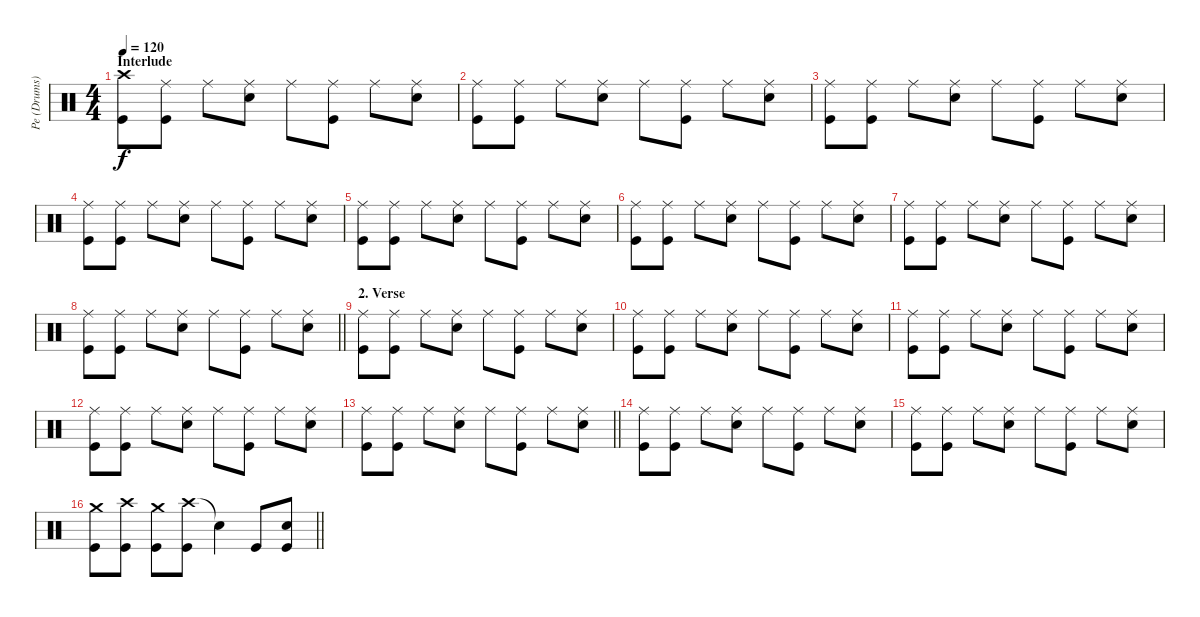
\track ("Pe (Drums)" "Pe (Drums)") {instrument percussion}
\staff {score}
\articulation defaults
\ts (4 4)
\section ("" "Interlude")
\tempo 120
\clef neutral
\ks c
("Crash high (hit)" "Kick (hit)").8{dy f} ("Ride (middle)" "Kick (hit)").8 "Ride (middle)".8 ("Ride (middle)" "Electric Snare (hit)").8 "Ride (middle)".8 ("Ride (middle)" "Kick (hit)").8 "Ride (middle)".8 ("Ride (middle)" "Electric Snare (hit)").8 |
("Ride (middle)" "Kick (hit)").8 ("Ride (middle)" "Kick (hit)").8 "Ride (middle)".8 ("Ride (middle)" "Electric Snare (hit)").8 "Ride (middle)".8 ("Ride (middle)" "Kick (hit)").8 "Ride (middle)".8 ("Ride (middle)" "Electric Snare (hit)").8 |
("Ride (middle)" "Kick (hit)").8 ("Ride (middle)" "Kick (hit)").8 "Ride (middle)".8 ("Ride (middle)" "Electric Snare (hit)").8 "Ride (middle)".8 ("Ride (middle)" "Kick (hit)").8 "Ride (middle)".8 ("Ride (middle)" "Electric Snare (hit)").8 |
("Ride (middle)" "Kick (hit)").8 ("Ride (middle)" "Kick (hit)").8 "Ride (middle)".8 ("Ride (middle)" "Electric Snare (hit)").8 "Ride (middle)".8 ("Ride (middle)" "Kick (hit)").8 "Ride (middle)".8 ("Ride (middle)" "Electric Snare (hit)").8 |
("Ride (middle)" "Kick (hit)").8 ("Ride (middle)" "Kick (hit)").8 "Ride (middle)".8 ("Ride (middle)" "Electric Snare (hit)").8 "Ride (middle)".8 ("Ride (middle)" "Kick (hit)").8 "Ride (middle)".8 ("Ride (middle)" "Electric Snare (hit)").8 |
("Ride (middle)" "Kick (hit)").8 ("Ride (middle)" "Kick (hit)").8 "Ride (middle)".8 ("Ride (middle)" "Electric Snare (hit)").8 "Ride (middle)".8 ("Ride (middle)" "Kick (hit)").8 "Ride (middle)".8 ("Ride (middle)" "Electric Snare (hit)").8 |
("Ride (middle)" "Kick (hit)").8 ("Ride (middle)" "Kick (hit)").8 "Ride (middle)".8 ("Ride (middle)" "Electric Snare (hit)").8 "Ride (middle)".8 ("Ride (middle)" "Kick (hit)").8 "Ride (middle)".8 ("Ride (middle)" "Electric Snare (hit)").8 |
\barLineRight lightlight
("Ride (middle)" "Kick (hit)").8 ("Ride (middle)" "Kick (hit)").8 "Ride (middle)".8 ("Ride (middle)" "Electric Snare (hit)").8 "Ride (middle)".8 ("Ride (middle)" "Kick (hit)").8 "Ride (middle)".8 ("Ride (middle)" "Electric Snare (hit)").8 |
\section ("" "2. Verse")
("Ride (middle)" "Kick (hit)").8 ("Ride (middle)" "Kick (hit)").8 "Ride (middle)".8 ("Ride (middle)" "Electric Snare (hit)").8 "Ride (middle)".8 ("Ride (middle)" "Kick (hit)").8 "Ride (middle)".8 ("Ride (middle)" "Electric Snare (hit)").8 |
("Ride (middle)" "Kick (hit)").8 ("Ride (middle)" "Kick (hit)").8 "Ride (middle)".8 ("Ride (middle)" "Electric Snare (hit)").8 "Ride (middle)".8 ("Ride (middle)" "Kick (hit)").8 "Ride (middle)".8 ("Ride (middle)" "Electric Snare (hit)").8 |
("Ride (middle)" "Kick (hit)").8 ("Ride (middle)" "Kick (hit)").8 "Ride (middle)".8 ("Ride (middle)" "Electric Snare (hit)").8 "Ride (middle)".8 ("Ride (middle)" "Kick (hit)").8 "Ride (middle)".8 ("Ride (middle)" "Electric Snare (hit)").8 |
("Ride (middle)" "Kick (hit)").8 ("Ride (middle)" "Kick (hit)").8 "Ride (middle)".8 ("Ride (middle)" "Electric Snare (hit)").8 "Ride (middle)".8 ("Ride (middle)" "Kick (hit)").8 "Ride (middle)".8 ("Ride (middle)" "Electric Snare (hit)").8 |
\barLineRight lightlight
("Ride (middle)" "Kick (hit)").8 ("Ride (middle)" "Kick (hit)").8 "Ride (middle)".8 ("Ride (middle)" "Electric Snare (hit)").8 "Ride (middle)".8 ("Ride (middle)" "Kick (hit)").8 "Ride (middle)".8 ("Ride (middle)" "Electric Snare (hit)").8 |
("Ride (middle)" "Kick (hit)").8 ("Ride (middle)" "Kick (hit)").8 "Ride (middle)".8 ("Ride (middle)" "Electric Snare (hit)").8 "Ride (middle)".8 ("Ride (middle)" "Kick (hit)").8 "Ride (middle)".8 ("Ride (middle)" "Electric Snare (hit)").8 |
("Ride (middle)" "Kick (hit)").8 ("Ride (middle)" "Kick (hit)").8 "Ride (middle)".8 ("Ride (middle)" "Electric Snare (hit)").8 "Ride (middle)".8 ("Ride (middle)" "Kick (hit)").8 "Ride (middle)".8 ("Ride (middle)" "Electric Snare (hit)").8 |
\barLineRight lightlight
("Crash medium (hit)" "Kick (hit)").8 ("Crash high (hit)" "Kick (hit)").8 ("Crash medium (hit)" "Kick (hit)").8 ("Crash high (hit)" "Kick (hit)").8 "Snare (hit)"{t}.4 "Kick (hit)".8 ("Electric Snare (hit)" "Kick (hit)").8
